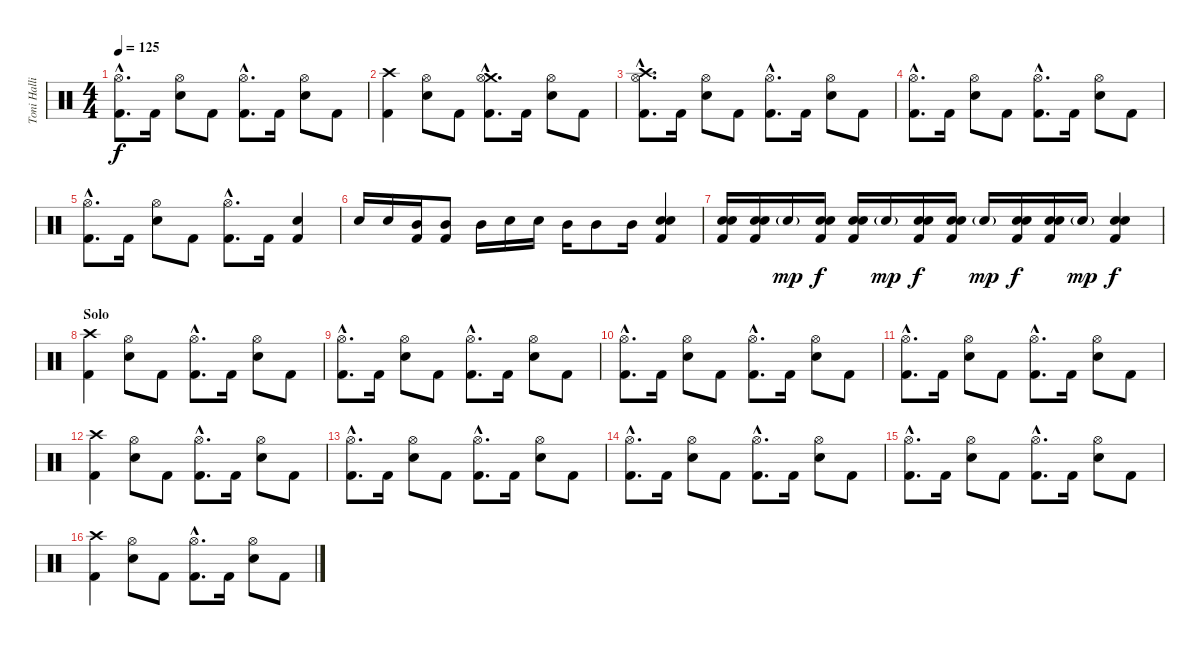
\track ("Toni Hallio" "Toni Halli") {instrument percussion}
\staff {score}
\articulation defaults
\ts (4 4)
\tempo 125
\clef neutral
\ks c
("Hi-Hat (open)"{hac} "Kick (hit) 2"{hac}).8{d dy f} "Kick (hit) 2".16 ("Snare (hit) 2" "Hi-Hat (open)").8 "Kick (hit) 2".8 ("Hi-Hat (open)"{hac} "Kick (hit) 2"{hac}).8{d} "Kick (hit) 2".16 ("Snare (hit) 2" "Hi-Hat (open)").8 "Kick (hit) 2".8 |
("Crash high (hit)" "Kick (hit) 2").4 ("Snare (hit) 2" "Hi-Hat (open)").8 "Kick (hit) 2".8 ("Crash medium (hit)"{hac} "Hi-Hat (open)"{hac} "Kick (hit) 2"{hac}).8{d} "Kick (hit) 2".16 ("Snare (hit) 2" "Hi-Hat (open)").8 "Kick (hit) 2".8 |
("Crash high (hit)"{hac} "Hi-Hat (open)"{hac} "Kick (hit) 2"{hac}).8{d} "Kick (hit) 2".16 ("Snare (hit) 2" "Hi-Hat (open)").8 "Kick (hit) 2".8 ("Hi-Hat (open)"{hac} "Kick (hit) 2"{hac}).8{d} "Kick (hit) 2".16 ("Snare (hit) 2" "Hi-Hat (open)").8 "Kick (hit) 2".8 |
("Hi-Hat (open)"{hac} "Kick (hit) 2"{hac}).8{d} "Kick (hit) 2".16 ("Snare (hit) 2" "Hi-Hat (open)").8 "Kick (hit) 2".8 ("Hi-Hat (open)"{hac} "Kick (hit) 2"{hac}).8{d} "Kick (hit) 2".16 ("Snare (hit) 2" "Hi-Hat (open)").8 "Kick (hit) 2".8 |
("Hi-Hat (open)"{hac} "Kick (hit) 2"{hac}).8{d} "Kick (hit) 2".16 ("Snare (hit) 2" "Hi-Hat (open)").8 "Kick (hit) 2".8 ("Hi-Hat (open)"{hac} "Kick (hit) 2"{hac}).8{d} "Kick (hit) 2".16 ("Snare (hit) 2" "Kick (hit) 2").4 |
"Snare (hit) 2".16 "Snare (hit) 2".16 ("Mid Tom (hit)" "Kick (hit) 2").16 ("Mid Tom (hit)" "Kick (hit) 2").8 "Mid Tom (hit)".16 "Snare (hit) 2".16 "Snare (hit) 2".16 "Mid Tom (hit)".16 "Mid Tom (hit)".8 "Mid Tom (hit)".16 ("Snare (hit) 2" "Snare (hit) 2" "Kick (hit) 2").4 |
("Snare (hit) 2" "Snare (hit) 2" "Kick (hit) 2").16 ("Snare (hit) 2" "Snare (hit) 2" "Kick (hit) 2").16 "Snare (hit) 2"{g}.16{dy mp} ("Snare (hit) 2" "Snare (hit) 2" "Kick (hit) 2").16{dy f} ("Snare (hit) 2" "Snare (hit) 2" "Kick (hit) 2").16 "Snare (hit) 2"{g}.16{dy mp} ("Snare (hit) 2" "Snare (hit) 2" "Kick (hit) 2").16{dy f} ("Snare (hit) 2" "Snare (hit) 2" "Kick (hit) 2").16 "Snare (hit) 2"{g}.16{dy mp} ("Snare (hit) 2" "Snare (hit) 2" "Kick (hit) 2").16{dy f} ("Snare (hit) 2" "Snare (hit) 2" "Kick (hit) 2").16 "Snare (hit) 2"{g}.16{dy mp} ("Snare (hit) 2" "Snare (hit) 2" "Kick (hit) 2").4{dy f} |
\section ("" "Solo")
("Crash high (hit)" "Kick (hit) 2").4 ("Snare (hit) 2" "Hi-Hat (open)").8 "Kick (hit) 2".8 ("Hi-Hat (open)"{hac} "Kick (hit) 2"{hac}).8{d} "Kick (hit) 2".16 ("Snare (hit) 2" "Hi-Hat (open)").8 "Kick (hit) 2".8 |
("Hi-Hat (open)"{hac} "Kick (hit) 2"{hac}).8{d} "Kick (hit) 2".16 ("Snare (hit) 2" "Hi-Hat (open)").8 "Kick (hit) 2".8 ("Hi-Hat (open)"{hac} "Kick (hit) 2"{hac}).8{d} "Kick (hit) 2".16 ("Snare (hit) 2" "Hi-Hat (open)").8 "Kick (hit) 2".8 |
("Hi-Hat (open)"{hac} "Kick (hit) 2"{hac}).8{d} "Kick (hit) 2".16 ("Snare (hit) 2" "Hi-Hat (open)").8 "Kick (hit) 2".8 ("Hi-Hat (open)"{hac} "Kick (hit) 2"{hac}).8{d} "Kick (hit) 2".16 ("Snare (hit) 2" "Hi-Hat (open)").8 "Kick (hit) 2".8 |
("Hi-Hat (open)"{hac} "Kick (hit) 2"{hac}).8{d} "Kick (hit) 2".16 ("Snare (hit) 2" "Hi-Hat (open)").8 "Kick (hit) 2".8 ("Hi-Hat (open)"{hac} "Kick (hit) 2"{hac}).8{d} "Kick (hit) 2".16 ("Snare (hit) 2" "Hi-Hat (open)").8 "Kick (hit) 2".8 |
("Crash high (hit)" "Kick (hit) 2").4 ("Snare (hit) 2" "Hi-Hat (open)").8 "Kick (hit) 2".8 ("Hi-Hat (open)"{hac} "Kick (hit) 2"{hac}).8{d} "Kick (hit) 2".16 ("Snare (hit) 2" "Hi-Hat (open)").8 "Kick (hit) 2".8 |
("Hi-Hat (open)"{hac} "Kick (hit) 2"{hac}).8{d} "Kick (hit) 2".16 ("Snare (hit) 2" "Hi-Hat (open)").8 "Kick (hit) 2".8 ("Hi-Hat (open)"{hac} "Kick (hit) 2"{hac}).8{d} "Kick (hit) 2".16 ("Snare (hit) 2" "Hi-Hat (open)").8 "Kick (hit) 2".8 |
("Hi-Hat (open)"{hac} "Kick (hit) 2"{hac}).8{d} "Kick (hit) 2".16 ("Snare (hit) 2" "Hi-Hat (open)").8 "Kick (hit) 2".8 ("Hi-Hat (open)"{hac} "Kick (hit) 2"{hac}).8{d} "Kick (hit) 2".16 ("Snare (hit) 2" "Hi-Hat (open)").8 "Kick (hit) 2".8 |
("Hi-Hat (open)"{hac} "Kick (hit) 2"{hac}).8{d} "Kick (hit) 2".16 ("Snare (hit) 2" "Hi-Hat (open)").8 "Kick (hit) 2".8 ("Hi-Hat (open)"{hac} "Kick (hit) 2"{hac}).8{d} "Kick (hit) 2".16 ("Snare (hit) 2" "Hi-Hat (open)").8 "Kick (hit) 2".8 |
("Crash high (hit)" "Kick (hit) 2").4 ("Snare (hit) 2" "Hi-Hat (open)").8 "Kick (hit) 2".8 ("Hi-Hat (open)"{hac} "Kick (hit) 2"{hac}).8{d} "Kick (hit) 2".16 ("Snare (hit) 2" "Hi-Hat (open)").8 "Kick (hit) 2".8
